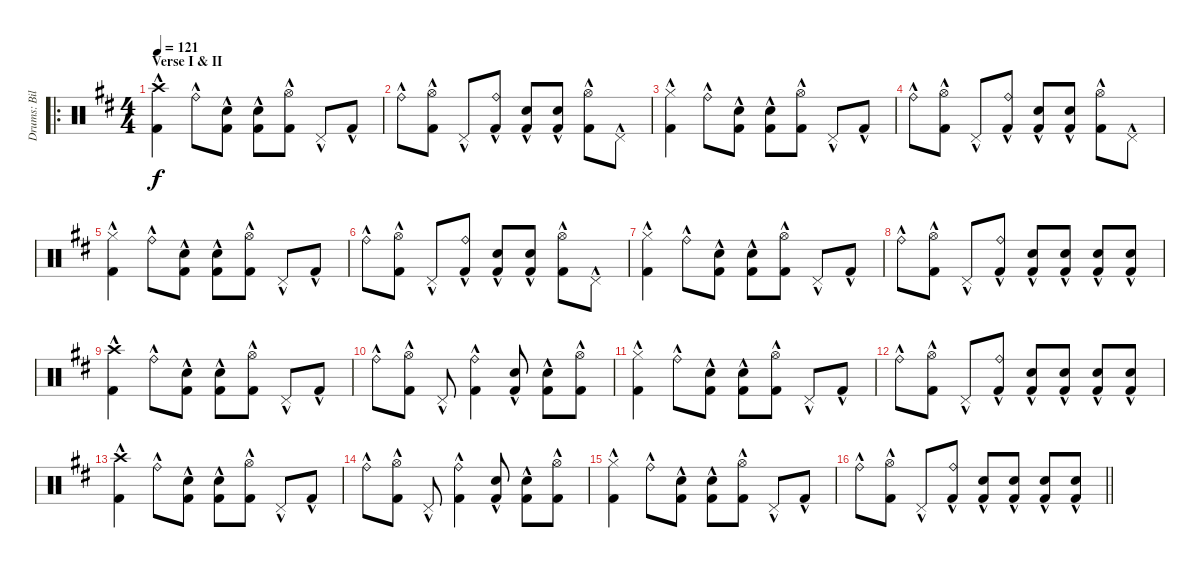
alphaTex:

\track ("Drums: Bill" "Drums: Bil") {instrument percussion}
\staff {score}
\articulation defaults
\ro
\ts (4 4)
\section ("" "Verse I & II")
\tempo 121
\clef neutral
\ks d
("Crash high (hit)"{hac} "Kick (hit) 2"{hac}).4{dy f} "Ride (bell)"{hac}.8 ("Electric Snare (hit)"{hac} "Kick (hit) 2"{hac}).8 ("Electric Snare (hit)"{hac} "Kick (hit) 2"{hac}).8 ("Hi-Hat (open)"{hac} "Kick (hit) 2"{hac}).8 "Pedal Hi-Hat (hit)"{hac}.8 "Kick (hit) 2"{hac}.8 |
"Ride (bell)"{hac}.8 ("Hi-Hat (open)"{hac} "Kick (hit) 2"{hac}).8 "Pedal Hi-Hat (hit)"{hac}.8 ("Ride (bell)"{hac} "Kick (hit) 2"{hac}).8 ("Electric Snare (hit)"{hac} "Kick (hit) 2"{hac}).8 ("Electric Snare (hit)"{hac} "Kick (hit) 2"{hac}).8 ("Hi-Hat (open)"{hac} "Kick (hit) 2"{hac}).8 "Pedal Hi-Hat (hit)"{hac}.8 |
("Hi-Hat (closed)"{hac} "Kick (hit) 2"{hac}).4 "Ride (bell)"{hac}.8 ("Electric Snare (hit)"{hac} "Kick (hit) 2"{hac}).8 ("Electric Snare (hit)"{hac} "Kick (hit) 2"{hac}).8 ("Hi-Hat (open)"{hac} "Kick (hit) 2"{hac}).8 "Pedal Hi-Hat (hit)"{hac}.8 "Kick (hit) 2"{hac}.8 |
"Ride (bell)"{hac}.8 ("Hi-Hat (open)"{hac} "Kick (hit) 2"{hac}).8 "Pedal Hi-Hat (hit)"{hac}.8 ("Ride (bell)"{hac} "Kick (hit) 2"{hac}).8 ("Electric Snare (hit)"{hac} "Kick (hit) 2"{hac}).8 ("Electric Snare (hit)"{hac} "Kick (hit) 2"{hac}).8 ("Hi-Hat (open)"{hac} "Kick (hit) 2"{hac}).8 "Pedal Hi-Hat (hit)"{hac}.8 |
("Hi-Hat (closed)"{hac} "Kick (hit) 2"{hac}).4 "Ride (bell)"{hac}.8 ("Electric Snare (hit)"{hac} "Kick (hit) 2"{hac}).8 ("Electric Snare (hit)"{hac} "Kick (hit) 2"{hac}).8 ("Hi-Hat (open)"{hac} "Kick (hit) 2"{hac}).8 "Pedal Hi-Hat (hit)"{hac}.8 "Kick (hit) 2"{hac}.8 |
"Ride (bell)"{hac}.8 ("Hi-Hat (open)"{hac} "Kick (hit) 2"{hac}).8 "Pedal Hi-Hat (hit)"{hac}.8 ("Ride (bell)"{hac} "Kick (hit) 2"{hac}).8 ("Electric Snare (hit)"{hac} "Kick (hit) 2"{hac}).8 ("Electric Snare (hit)"{hac} "Kick (hit) 2"{hac}).8 ("Hi-Hat (open)"{hac} "Kick (hit) 2"{hac}).8 "Pedal Hi-Hat (hit)"{hac}.8 |
("Hi-Hat (closed)"{hac} "Kick (hit) 2"{hac}).4 "Ride (bell)"{hac}.8 ("Electric Snare (hit)"{hac} "Kick (hit) 2"{hac}).8 ("Electric Snare (hit)"{hac} "Kick (hit) 2"{hac}).8 ("Hi-Hat (open)"{hac} "Kick (hit) 2"{hac}).8 "Pedal Hi-Hat (hit)"{hac}.8 "Kick (hit) 2"{hac}.8 |
"Ride (bell)"{hac}.8 ("Hi-Hat (open)"{hac} "Kick (hit) 2"{hac}).8 "Pedal Hi-Hat (hit)"{hac}.8 ("Ride (bell)"{hac} "Kick (hit) 2"{hac}).8 ("Electric Snare (hit)"{hac} "Kick (hit) 2"{hac}).8 ("Electric Snare (hit)"{hac} "Kick (hit) 2"{hac}).8 ("Electric Snare (hit)"{hac} "Kick (hit) 2"{hac}).8 ("Electric Snare (hit)"{hac} "Kick (hit) 2"{hac}).8 |
("Crash high (hit)"{hac} "Kick (hit) 2"{hac}).4 "Ride (bell)"{hac}.8 ("Electric Snare (hit)"{hac} "Kick (hit) 2"{hac}).8 ("Electric Snare (hit)"{hac} "Kick (hit) 2"{hac}).8 ("Hi-Hat (open)"{hac} "Kick (hit) 2"{hac}).8 "Pedal Hi-Hat (hit)"{hac}.8 "Kick (hit) 2"{hac}.8 |
"Ride (bell)"{hac}.8 ("Hi-Hat (open)"{hac} "Kick (hit) 2"{hac}).8 "Pedal Hi-Hat (hit)"{hac}.8 ("Ride (bell)"{hac} "Kick (hit) 2"{hac}).4 ("Electric Snare (hit)"{hac} "Kick (hit) 2"{hac}).8 ("Electric Snare (hit)"{hac} "Kick (hit) 2"{hac}).8 ("Hi-Hat (open)"{hac} "Kick (hit) 2"{hac}).8 |
("Hi-Hat (closed)"{hac} "Kick (hit) 2"{hac}).4 "Ride (bell)"{hac}.8 ("Electric Snare (hit)"{hac} "Kick (hit) 2"{hac}).8 ("Electric Snare (hit)"{hac} "Kick (hit) 2"{hac}).8 ("Hi-Hat (open)"{hac} "Kick (hit) 2"{hac}).8 "Pedal Hi-Hat (hit)"{hac}.8 "Kick (hit) 2"{hac}.8 |
"Ride (bell)"{hac}.8 ("Hi-Hat (open)"{hac} "Kick (hit) 2"{hac}).8 "Pedal Hi-Hat (hit)"{hac}.8 ("Ride (bell)"{hac} "Kick (hit) 2"{hac}).8 ("Electric Snare (hit)"{hac} "Kick (hit) 2"{hac}).8 ("Electric Snare (hit)"{hac} "Kick (hit) 2"{hac}).8 ("Electric Snare (hit)"{hac} "Kick (hit) 2"{hac}).8 ("Electric Snare (hit)"{hac} "Kick (hit) 2"{hac}).8 |
("Crash high (hit)"{hac} "Kick (hit) 2"{hac}).4 "Ride (bell)"{hac}.8 ("Electric Snare (hit)"{hac} "Kick (hit) 2"{hac}).8 ("Electric Snare (hit)"{hac} "Kick (hit) 2"{hac}).8 ("Hi-Hat (open)"{hac} "Kick (hit) 2"{hac}).8 "Pedal Hi-Hat (hit)"{hac}.8 "Kick (hit) 2"{hac}.8 |
"Ride (bell)"{hac}.8 ("Hi-Hat (open)"{hac} "Kick (hit) 2"{hac}).8 "Pedal Hi-Hat (hit)"{hac}.8 ("Ride (bell)"{hac} "Kick (hit) 2"{hac}).4 ("Electric Snare (hit)"{hac} "Kick (hit) 2"{hac}).8 ("Electric Snare (hit)"{hac} "Kick (hit) 2"{hac}).8 ("Hi-Hat (open)"{hac} "Kick (hit) 2"{hac}).8 |
("Hi-Hat (closed)"{hac} "Kick (hit) 2"{hac}).4 "Ride (bell)"{hac}.8 ("Electric Snare (hit)"{hac} "Kick (hit) 2"{hac}).8 ("Electric Snare (hit)"{hac} "Kick (hit) 2"{hac}).8 ("Hi-Hat (open)"{hac} "Kick (hit) 2"{hac}).8 "Pedal Hi-Hat (hit)"{hac}.8 "Kick (hit) 2"{hac}.8 |
\barLineRight lightlight "Ride (bell)"{hac}.8
("Hi-Hat (open)"{hac} "Kick (hit) 2"{hac}).8 "Pedal Hi-Hat (hit)"{hac}.8 ("Ride (bell)"{hac} "Kick (hit) 2"{hac}).8 ("Electric Snare (hit)"{hac} "Kick (hit) 2"{hac}).8 ("Electric Snare (hit)"{hac} "Kick (hit) 2"{hac}).8 ("Electric Snare (hit)"{hac} "Kick (hit) 2"{hac}).8 ("Electric Snare (hit)"{hac} "Kick (hit) 2"{hac}).8
